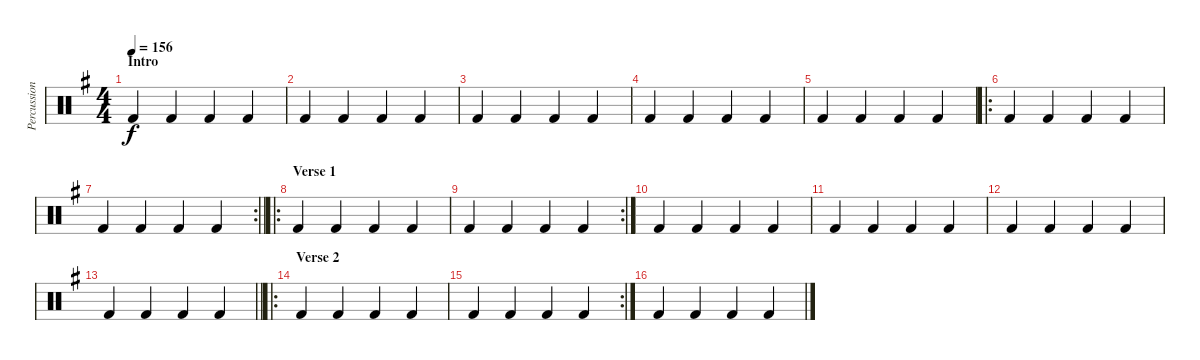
\track ("Percussion" "Percussion") {instrument percussion}
\staff {score}
\articulation defaults
\ts (4 4)
\section ("" "Intro")
\tempo 156
\clef neutral
\ks g "Kick (hit) 2".4{dy f} "Kick (hit) 2".4 "Kick (hit) 2".4 "Kick (hit) 2".4
|
"Kick (hit) 2".4 "Kick (hit) 2".4 "Kick (hit) 2".4 "Kick (hit) 2".4 |
"Kick (hit) 2".4 "Kick (hit) 2".4 "Kick (hit) 2".4 "Kick (hit) 2".4 |
"Kick (hit) 2".4 "Kick (hit) 2".4 "Kick (hit) 2".4 "Kick (hit) 2".4 |
"Kick (hit) 2".4 "Kick (hit) 2".4 "Kick (hit) 2".4 "Kick (hit) 2".4 |
\ro "Kick (hit) 2".4 "Kick (hit) 2".4 "Kick (hit) 2".4 "Kick (hit) 2".4
|
\rc 2
\barLineRight lightlight "Kick (hit) 2".4 "Kick (hit) 2".4 "Kick (hit) 2".4 "Kick (hit) 2".4
|
\ro
\section ("" "Verse 1")
"Kick (hit) 2".4 "Kick (hit) 2".4 "Kick (hit) 2".4 "Kick (hit) 2".4 |
\rc 2 "Kick (hit) 2".4 "Kick (hit) 2".4 "Kick (hit) 2".4 "Kick (hit) 2".4
|
"Kick (hit) 2".4 "Kick (hit) 2".4 "Kick (hit) 2".4 "Kick (hit) 2".4 |
"Kick (hit) 2".4 "Kick (hit) 2".4 "Kick (hit) 2".4 "Kick (hit) 2".4 |
"Kick (hit) 2".4 "Kick (hit) 2".4 "Kick (hit) 2".4 "Kick (hit) 2".4 |
\barLineRight lightlight "Kick (hit) 2".4 "Kick (hit) 2".4 "Kick (hit) 2".4 "Kick (hit) 2".4
|
\ro
\section ("" "Verse 2")
"Kick (hit) 2".4 "Kick (hit) 2".4 "Kick (hit) 2".4 "Kick (hit) 2".4 |
\rc 2 "Kick (hit) 2".4 "Kick (hit) 2".4 "Kick (hit) 2".4 "Kick (hit) 2".4
|
"Kick (hit) 2".4 "Kick (hit) 2".4 "Kick (hit) 2".4 "Kick (hit) 2".4
